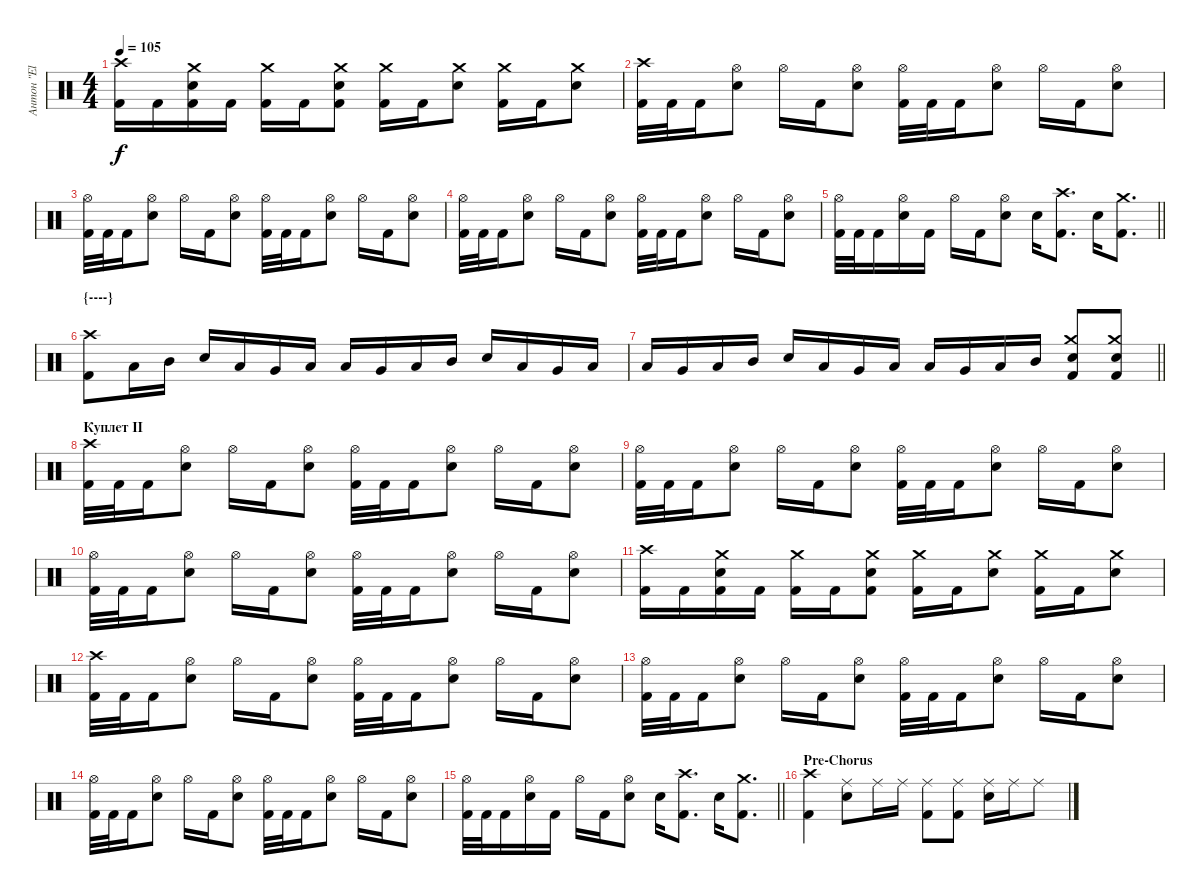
\track ("Антон \"El Bastardo\" Смольянин" "Антон \"El ") {instrument percussion}
\staff {score}
\articulation defaults
\ts (4 4)
\tempo 105
\clef neutral
\ks c
("Crash high (hit)" "Kick (hit) 2").16{dy f} "Kick (hit) 2".16 ("Crash medium (hit)" "Electric Snare (hit)" "Kick (hit) 2").16 "Kick (hit) 2".16 ("Crash medium (hit)" "Kick (hit) 2").16 "Kick (hit) 2".16 ("Crash medium (hit)" "Electric Snare (hit)" "Kick (hit) 2").8 ("Crash medium (hit)" "Kick (hit) 2").16 "Kick (hit) 2".16 ("Crash medium (hit)" "Electric Snare (hit)").8 ("Crash medium (hit)" "Kick (hit) 2").16 "Kick (hit) 2".16 ("Crash medium (hit)" "Electric Snare (hit)").8 |
("Crash high (hit)" "Kick (hit) 2").32 "Kick (hit) 2".32 "Kick (hit) 2".16 ("Hi-Hat (open)" "Electric Snare (hit)").8 "Hi-Hat (open)".16 "Kick (hit) 2".16 ("Hi-Hat (open)" "Electric Snare (hit)").8 ("Hi-Hat (open)" "Kick (hit) 2").32 "Kick (hit) 2".32 "Kick (hit) 2".16 ("Hi-Hat (open)" "Electric Snare (hit)").8 "Hi-Hat (open)".16 "Kick (hit) 2".16 ("Hi-Hat (open)" "Electric Snare (hit)").8 |
("Hi-Hat (open)" "Kick (hit) 2").32 "Kick (hit) 2".32 "Kick (hit) 2".16 ("Hi-Hat (open)" "Electric Snare (hit)").8 "Hi-Hat (open)".16 "Kick (hit) 2".16 ("Hi-Hat (open)" "Electric Snare (hit)").8 ("Hi-Hat (open)" "Kick (hit) 2").32 "Kick (hit) 2".32 "Kick (hit) 2".16 ("Hi-Hat (open)" "Electric Snare (hit)").8 "Hi-Hat (open)".16 "Kick (hit) 2".16 ("Hi-Hat (open)" "Electric Snare (hit)").8 |
("Hi-Hat (open)" "Kick (hit) 2").32 "Kick (hit) 2".32 "Kick (hit) 2".16 ("Hi-Hat (open)" "Electric Snare (hit)").8 "Hi-Hat (open)".16 "Kick (hit) 2".16 ("Hi-Hat (open)" "Electric Snare (hit)").8 ("Hi-Hat (open)" "Kick (hit) 2").32 "Kick (hit) 2".32 "Kick (hit) 2".16 ("Hi-Hat (open)" "Electric Snare (hit)").8 "Hi-Hat (open)".16 "Kick (hit) 2".16 ("Hi-Hat (open)" "Electric Snare (hit)").8 |
\barLineRight lightlight
("Hi-Hat (open)" "Kick (hit) 2").32 "Kick (hit) 2".32 "Kick (hit) 2".16 ("Hi-Hat (open)" "Electric Snare (hit)").16 "Kick (hit) 2".16 "Hi-Hat (open)".16 "Kick (hit) 2".16 ("Hi-Hat (open)" "Electric Snare (hit)").8 "Electric Snare (hit)".16 ("Crash high (hit)" "Kick (hit) 2").8{d} "Electric Snare (hit)".16 ("Crash medium (hit)" "Kick (hit) 2").8{d} |
\section ("" "{----}")
("Crash high (hit)" "Kick (hit) 2").8 "Low Tom (hit)".16 "Mid Tom (hit)".16 "Electric Snare (hit)".16 "Low Tom (hit)".16 "Very Low Tom (hit)".16 "Low Tom (hit)".16 "Low Floor Tom (hit)".16 "Very Low Tom (hit)".16 "Low Tom (hit)".16 "Mid Tom (hit)".16 "Electric Snare (hit)".16 "Low Tom (hit)".16 "Very Low Tom (hit)".16 "Low Tom (hit)".16 |
\barLineRight lightlight "Low Floor Tom (hit)".16 "Very Low Tom (hit)".16 "Low Tom (hit)".16 "Mid Tom (hit)".16 "Electric Snare (hit)".16 "Low Tom (hit)".16 "Very Low Tom (hit)".16 "Low Tom (hit)".16 "Low Floor Tom (hit)".16 "Very Low Tom (hit)".16 "Low Tom (hit)".16 "Mid Tom (hit)".16
("Crash medium (hit)" "Electric Snare (hit)" "Kick (hit) 2").8 ("Crash medium (hit)" "Electric Snare (hit)" "Kick (hit) 2").8 |
\section ("" "Куплет II")
("Crash high (hit)" "Kick (hit) 2").32 "Kick (hit) 2".32 "Kick (hit) 2".16 ("Hi-Hat (open)" "Electric Snare (hit)").8 "Hi-Hat (open)".16 "Kick (hit) 2".16 ("Hi-Hat (open)" "Electric Snare (hit)").8 ("Hi-Hat (open)" "Kick (hit) 2").32 "Kick (hit) 2".32 "Kick (hit) 2".16 ("Hi-Hat (open)" "Electric Snare (hit)").8 "Hi-Hat (open)".16 "Kick (hit) 2".16 ("Hi-Hat (open)" "Electric Snare (hit)").8 |
("Hi-Hat (open)" "Kick (hit) 2").32 "Kick (hit) 2".32 "Kick (hit) 2".16 ("Hi-Hat (open)" "Electric Snare (hit)").8 "Hi-Hat (open)".16 "Kick (hit) 2".16 ("Hi-Hat (open)" "Electric Snare (hit)").8 ("Hi-Hat (open)" "Kick (hit) 2").32 "Kick (hit) 2".32 "Kick (hit) 2".16 ("Hi-Hat (open)" "Electric Snare (hit)").8 "Hi-Hat (open)".16 "Kick (hit) 2".16 ("Hi-Hat (open)" "Electric Snare (hit)").8 |
("Hi-Hat (open)" "Kick (hit) 2").32 "Kick (hit) 2".32 "Kick (hit) 2".16 ("Hi-Hat (open)" "Electric Snare (hit)").8 "Hi-Hat (open)".16 "Kick (hit) 2".16 ("Hi-Hat (open)" "Electric Snare (hit)").8 ("Hi-Hat (open)" "Kick (hit) 2").32 "Kick (hit) 2".32 "Kick (hit) 2".16 ("Hi-Hat (open)" "Electric Snare (hit)").8 "Hi-Hat (open)".16 "Kick (hit) 2".16 ("Hi-Hat (open)" "Electric Snare (hit)").8 |
("Crash high (hit)" "Kick (hit) 2").16 "Kick (hit) 2".16 ("Crash medium (hit)" "Electric Snare (hit)" "Kick (hit) 2").16 "Kick (hit) 2".16 ("Crash medium (hit)" "Kick (hit) 2").16 "Kick (hit) 2".16 ("Crash medium (hit)" "Electric Snare (hit)" "Kick (hit) 2").8 ("Crash medium (hit)" "Kick (hit) 2").16 "Kick (hit) 2".16 ("Crash medium (hit)" "Electric Snare (hit)").8 ("Crash medium (hit)" "Kick (hit) 2").16 "Kick (hit) 2".16 ("Crash medium (hit)" "Electric Snare (hit)").8 |
("Crash high (hit)" "Kick (hit) 2").32 "Kick (hit) 2".32 "Kick (hit) 2".16 ("Hi-Hat (open)" "Electric Snare (hit)").8 "Hi-Hat (open)".16 "Kick (hit) 2".16 ("Hi-Hat (open)" "Electric Snare (hit)").8 ("Hi-Hat (open)" "Kick (hit) 2").32 "Kick (hit) 2".32 "Kick (hit) 2".16 ("Hi-Hat (open)" "Electric Snare (hit)").8 "Hi-Hat (open)".16 "Kick (hit) 2".16 ("Hi-Hat (open)" "Electric Snare (hit)").8 |
("Hi-Hat (open)" "Kick (hit) 2").32 "Kick (hit) 2".32 "Kick (hit) 2".16 ("Hi-Hat (open)" "Electric Snare (hit)").8 "Hi-Hat (open)".16 "Kick (hit) 2".16 ("Hi-Hat (open)" "Electric Snare (hit)").8 ("Hi-Hat (open)" "Kick (hit) 2").32 "Kick (hit) 2".32 "Kick (hit) 2".16 ("Hi-Hat (open)" "Electric Snare (hit)").8 "Hi-Hat (open)".16 "Kick (hit) 2".16 ("Hi-Hat (open)" "Electric Snare (hit)").8 |
("Hi-Hat (open)" "Kick (hit) 2").32 "Kick (hit) 2".32 "Kick (hit) 2".16 ("Hi-Hat (open)" "Electric Snare (hit)").8 "Hi-Hat (open)".16 "Kick (hit) 2".16 ("Hi-Hat (open)" "Electric Snare (hit)").8 ("Hi-Hat (open)" "Kick (hit) 2").32 "Kick (hit) 2".32 "Kick (hit) 2".16 ("Hi-Hat (open)" "Electric Snare (hit)").8 "Hi-Hat (open)".16 "Kick (hit) 2".16 ("Hi-Hat (open)" "Electric Snare (hit)").8 |
\barLineRight lightlight
("Hi-Hat (open)" "Kick (hit) 2").32 "Kick (hit) 2".32 "Kick (hit) 2".16 ("Hi-Hat (open)" "Electric Snare (hit)").16 "Kick (hit) 2".16 "Hi-Hat (open)".16 "Kick (hit) 2".16 ("Hi-Hat (open)" "Electric Snare (hit)").8 "Electric Snare (hit)".16 ("Crash high (hit)" "Kick (hit) 2").8{d} "Electric Snare (hit)".16 ("Crash medium (hit)" "Kick (hit) 2").8{d} |
\section ("" "Pre-Chorus")
("Crash high (hit)" "Kick (hit) 2").4 ("Ride (middle)" "Electric Snare (hit)").8 "Ride (middle)".16 "Ride (middle)".16 ("Ride (middle)" "Kick (hit) 2").8 ("Ride (middle)" "Kick (hit) 2").8 ("Ride (middle)" "Electric Snare (hit)").16 "Ride (middle)".16 "Ride (middle)".8
